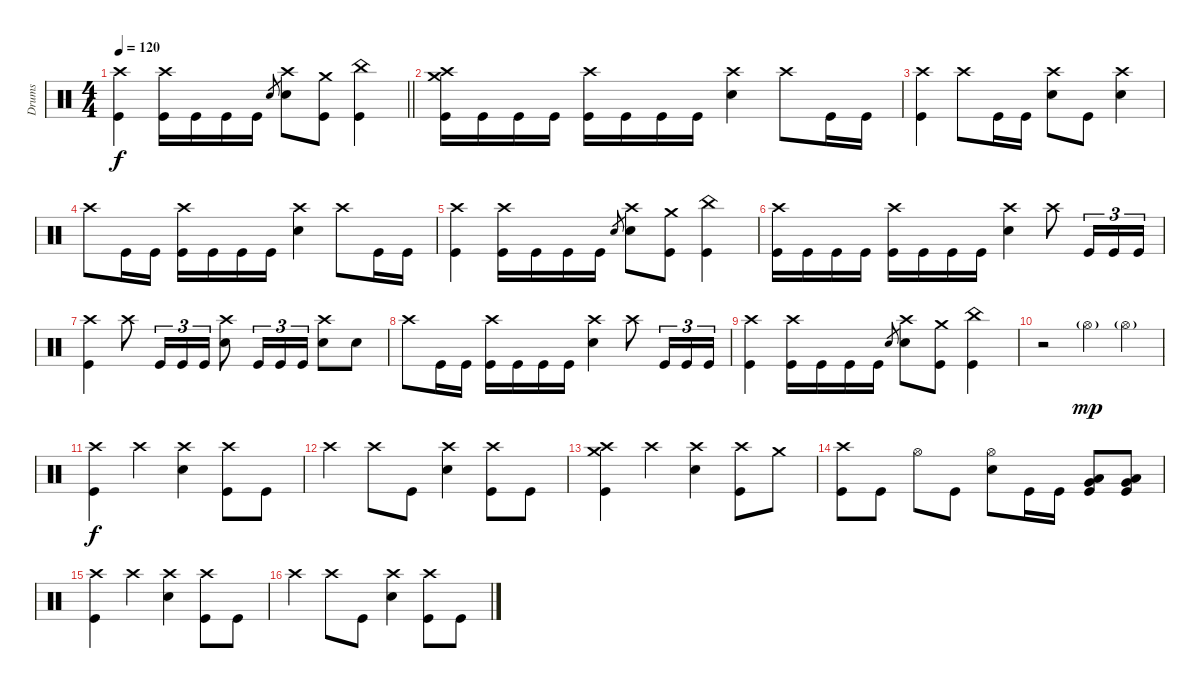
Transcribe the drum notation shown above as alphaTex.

\track ("Drums" "Drums") {instrument percussion}
\staff
\articulation defaults
\ts (4 4)
\tempo 120
\clef neutral
\barLineRight lightlight
\ks c
("Crash high (hit)" "Kick (hit)").4{dy f} ("Crash high (hit)" "Kick (hit)").16 "Kick (hit)".16 "Kick (hit)".16 "Kick (hit)".16 "Electric Snare (hit)".8{gr} ("Crash high (hit)" "Electric Snare (hit)").8 ("Crash medium (hit)" "Kick (hit)").8 ("China (hit)" "Kick (hit)").4 |
("Crash high (hit)" "Crash medium (hit)" "Kick (hit)").16 "Kick (hit)".16 "Kick (hit)".16 "Kick (hit)".16 ("Crash high (hit)" "Kick (hit)").16 "Kick (hit)".16 "Kick (hit)".16 "Kick (hit)".16 ("Crash high (hit)" "Electric Snare (hit)").4 "Crash high (hit)".8 "Kick (hit)".16 "Kick (hit)".16 |
("Crash high (hit)" "Kick (hit)").4 "Crash high (hit)".8 "Kick (hit)".16 "Kick (hit)".16 ("Crash high (hit)" "Electric Snare (hit)").8 "Kick (hit)".8 ("Crash high (hit)" "Electric Snare (hit)").4 |
"Crash high (hit)".8 "Kick (hit)".16 "Kick (hit)".16 ("Crash high (hit)" "Kick (hit)").16 "Kick (hit)".16 "Kick (hit)".16 "Kick (hit)".16 ("Crash high (hit)" "Electric Snare (hit)").4 "Crash high (hit)".8 "Kick (hit)".16 "Kick (hit)".16 |
("Crash high (hit)" "Kick (hit)").4 ("Crash high (hit)" "Kick (hit)").16 "Kick (hit)".16 "Kick (hit)".16 "Kick (hit)".16 "Electric Snare (hit)".8{gr} ("Crash high (hit)" "Electric Snare (hit)").8 ("Crash medium (hit)" "Kick (hit)").8 ("China (hit)" "Kick (hit)").4 |
("Crash high (hit)" "Kick (hit)").16 "Kick (hit)".16 "Kick (hit)".16 "Kick (hit)".16 ("Crash high (hit)" "Kick (hit)").16 "Kick (hit)".16 "Kick (hit)".16 "Kick (hit)".16 ("Crash high (hit)" "Electric Snare (hit)").4 "Crash high (hit)".8 "Kick (hit)".16{tu (3 2)} "Kick (hit)".16{tu (3 2)} "Kick (hit)".16{tu (3 2)} |
("Crash high (hit)" "Kick (hit)").4 "Crash high (hit)".8 "Kick (hit)".16{tu (3 2)} "Kick (hit)".16{tu (3 2)} "Kick (hit)".16{tu (3 2)} ("Crash high (hit)" "Electric Snare (hit)").8 "Kick (hit)".16{tu (3 2)} "Kick (hit)".16{tu (3 2)} "Kick (hit)".16{tu (3 2)} ("Crash high (hit)" "Electric Snare (hit)").8 "Electric Snare (hit)".8 |
"Crash high (hit)".8 "Kick (hit)".16 "Kick (hit)".16 ("Crash high (hit)" "Kick (hit)").16 "Kick (hit)".16 "Kick (hit)".16 "Kick (hit)".16 ("Crash high (hit)" "Electric Snare (hit)").4 "Crash high (hit)".8 "Kick (hit)".16{tu (3 2)} "Kick (hit)".16{tu (3 2)} "Kick (hit)".16{tu (3 2)} |
("Crash high (hit)" "Kick (hit)").4 ("Crash high (hit)" "Kick (hit)").16 "Kick (hit)".16 "Kick (hit)".16 "Kick (hit)".16 "Electric Snare (hit)".8{gr} ("Crash high (hit)" "Electric Snare (hit)").8 ("Crash medium (hit)" "Kick (hit)").8 ("China (hit)" "Kick (hit)").4 |
r.2 "Hi-Hat (open)"{g}.4{dy mp} "Hi-Hat (open)"{g}.4 |
("Crash high (hit)" "Kick (hit)").4{dy f} "Crash high (hit)".4 ("Crash high (hit)" "Electric Snare (hit)").4 ("Crash high (hit)" "Kick (hit)").8 "Kick (hit)".8 |
"Crash high (hit)".4 "Crash high (hit)".8 "Kick (hit)".8 ("Crash high (hit)" "Electric Snare (hit)").4 ("Crash high (hit)" "Kick (hit)").8 "Kick (hit)".8 |
("Crash high (hit)" "Crash medium (hit)" "Kick (hit)").4 "Crash high (hit)".4 ("Crash high (hit)" "Electric Snare (hit)").4 ("Crash high (hit)" "Kick (hit)").8 "Crash medium (hit)".8 |
("Crash high (hit)" "Kick (hit)").8 "Kick (hit)".8 "Hi-Hat (open)".8 "Kick (hit)".8 ("Hi-Hat (open)" "Electric Snare (hit)").8 "Kick (hit)".16 "Kick (hit)".16 ("Very Low Tom (hit)" "Low Floor Tom (hit)" "Kick (hit)").8 ("Very Low Tom (hit)" "Low Floor Tom (hit)" "Kick (hit)").8 |
("Crash high (hit)" "Kick (hit)").4 "Crash high (hit)".4 ("Crash high (hit)" "Electric Snare (hit)").4 ("Crash high (hit)" "Kick (hit)").8 "Kick (hit)".8 |
"Crash high (hit)".4 "Crash high (hit)".8 "Kick (hit)".8 ("Crash high (hit)" "Electric Snare (hit)").4 ("Crash high (hit)" "Kick (hit)").8 "Kick (hit)".8
